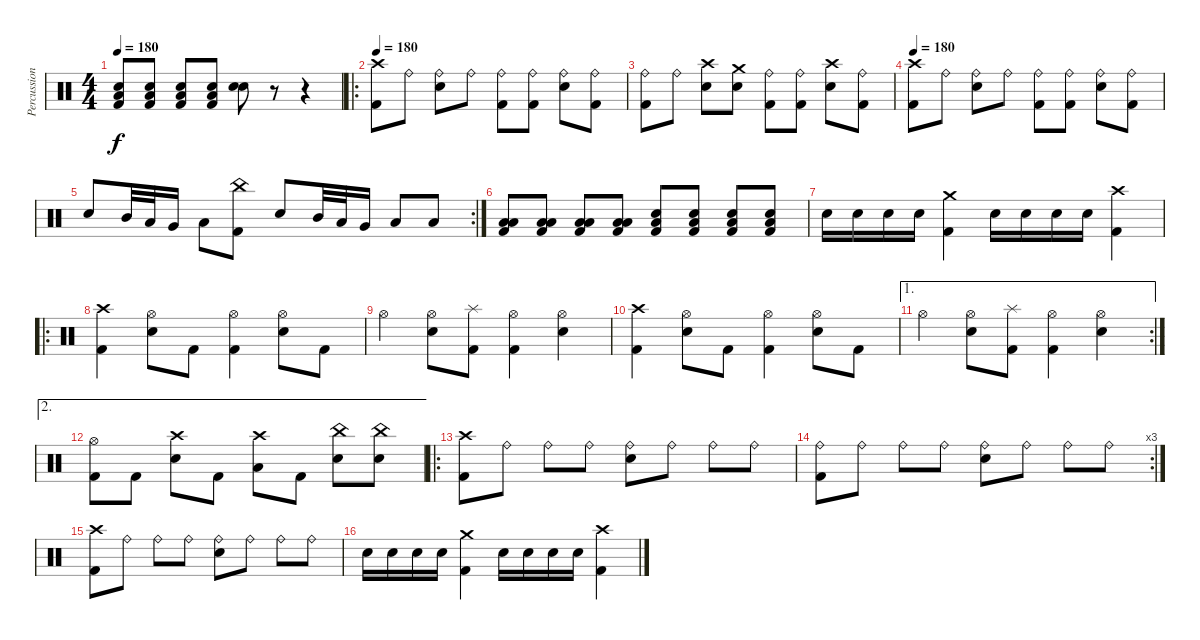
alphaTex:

\track ("Percussions" "Percussion") {instrument percussion}
\staff {score}
\articulation defaults
\ts (4 4)
\tempo 180
\clef neutral
\ks c
("Snare (hit) 2" "Low Floor Tom (hit)" "Kick (hit) 2").8{dy f} ("Snare (hit) 2" "Low Floor Tom (hit)" "Kick (hit) 2").8 ("Snare (hit) 2" "Low Floor Tom (hit)" "Kick (hit) 2").8 ("Snare (hit) 2" "Low Floor Tom (hit)" "Kick (hit) 2").8 ("Snare (hit) 2" "Snare (hit) 2").8{bd 120} r.8 r.4 |
\ro
\tempo 180
("Crash high (hit)" "Kick (hit) 2").8 "Ride (bell)".8 ("Ride (bell)" "Snare (hit) 2").8 "Ride (bell)".8 ("Ride (bell)" "Kick (hit) 2").8 ("Ride (bell)" "Kick (hit) 2").8 ("Ride (bell)" "Snare (hit) 2").8 ("Ride (bell)" "Kick (hit) 2").8 |
("Ride (bell)" "Kick (hit) 2").8 "Ride (bell)".8 ("Crash high (hit)" "Snare (hit) 2").8 ("Crash medium (hit)" "Snare (hit) 2").8 ("Ride (bell)" "Kick (hit) 2").8 ("Ride (bell)" "Kick (hit) 2").8 ("Crash high (hit)" "Snare (hit) 2").8 ("Ride (bell)" "Kick (hit) 2").8 |
\tempo 180
("Crash high (hit)" "Kick (hit) 2").8 "Ride (bell)".8 ("Ride (bell)" "Snare (hit) 2").8 "Ride (bell)".8 ("Ride (bell)" "Kick (hit) 2").8 ("Ride (bell)" "Kick (hit) 2").8 ("Ride (bell)" "Snare (hit) 2").8 ("Ride (bell)" "Kick (hit) 2").8 |
\rc 2 "Snare (hit) 2".8 "Mid Tom (hit)".32 "Low Tom (hit)".32 "Very Low Tom (hit)".16 "Low Floor Tom (hit)".8
("China (hit)" "Kick (hit) 2").8 "Snare (hit) 2".8 "Mid Tom (hit)".32 "Low Tom (hit)".32 "Very Low Tom (hit)".16 "Low Floor Tom (hit)".8 "Low Floor Tom (hit)".8 |
("Low Floor Tom (hit)" "Low Floor Tom (hit)" "Kick (hit) 2").8 ("Low Floor Tom (hit)" "Low Floor Tom (hit)" "Kick (hit) 2").8 ("Low Floor Tom (hit)" "Low Floor Tom (hit)" "Kick (hit) 2").8 ("Low Floor Tom (hit)" "Low Floor Tom (hit)" "Kick (hit) 2").8 ("Snare (hit) 2" "Low Floor Tom (hit)" "Kick (hit) 2").8 ("Snare (hit) 2" "Low Floor Tom (hit)" "Kick (hit) 2").8 ("Snare (hit) 2" "Low Floor Tom (hit)" "Kick (hit) 2").8 ("Snare (hit) 2" "Low Floor Tom (hit)" "Kick (hit) 2").8 |
"Snare (hit) 2".16 "Snare (hit) 2".16 "Snare (hit) 2".16 "Snare (hit) 2".16 ("Crash medium (hit)" "Kick (hit) 2").4 "Snare (hit) 2".16 "Snare (hit) 2".16 "Snare (hit) 2".16 "Snare (hit) 2".16 ("Crash high (hit)" "Kick (hit) 2").4 |
\ro
("Crash high (hit)" "Kick (hit) 2").4 ("Hi-Hat (open)" "Snare (hit) 2").8 "Kick (hit) 2".8 ("Hi-Hat (open)" "Kick (hit) 2").4 ("Hi-Hat (open)" "Snare (hit) 2").8 "Kick (hit) 2".8 |
"Hi-Hat (open)".4 ("Hi-Hat (open)" "Snare (hit) 2").8 ("Splash (hit)" "Kick (hit) 2").8 ("Hi-Hat (open)" "Kick (hit) 2").4 ("Hi-Hat (open)" "Snare (hit) 2").4 |
("Crash high (hit)" "Kick (hit) 2").4 ("Hi-Hat (open)" "Snare (hit) 2").8 "Kick (hit) 2".8 ("Hi-Hat (open)" "Kick (hit) 2").4 ("Hi-Hat (open)" "Snare (hit) 2").8 "Kick (hit) 2".8 |
\ae 1
\rc 2 "Hi-Hat (open)".4
("Hi-Hat (open)" "Snare (hit) 2").8 ("Splash (hit)" "Kick (hit) 2").8 ("Hi-Hat (open)" "Kick (hit) 2").4 ("Hi-Hat (open)" "Snare (hit) 2").4 |
\ae 2
("Hi-Hat (open)" "Kick (hit) 2").8 "Kick (hit) 2".8 ("Crash high (hit)" "Snare (hit) 2").8 "Kick (hit) 2".8 ("Crash high (hit)" "Low Tom (hit)").8 "Kick (hit) 2".8 ("China (hit)" "Snare (hit) 2").8 ("China (hit)" "Snare (hit) 2").8 |
\ro
("Crash high (hit)" "Kick (hit) 2").8 "Ride (bell)".8 "Ride (bell)".8 "Ride (bell)".8 ("Ride (bell)" "Snare (hit) 2").8 "Ride (bell)".8 "Ride (bell)".8 "Ride (bell)".8 |
\rc 3
("Ride (bell)" "Kick (hit) 2").8 "Ride (bell)".8 "Ride (bell)".8 "Ride (bell)".8 ("Ride (bell)" "Snare (hit) 2").8 "Ride (bell)".8 "Ride (bell)".8 "Ride (bell)".8 |
("Crash high (hit)" "Kick (hit) 2").8 "Ride (bell)".8 "Ride (bell)".8 "Ride (bell)".8 ("Ride (bell)" "Snare (hit) 2").8 "Ride (bell)".8 "Ride (bell)".8 "Ride (bell)".8 |
"Snare (hit) 2".16 "Snare (hit) 2".16 "Snare (hit) 2".16 "Snare (hit) 2".16 ("Crash medium (hit)" "Kick (hit) 2").4 "Snare (hit) 2".16 "Snare (hit) 2".16 "Snare (hit) 2".16 "Snare (hit) 2".16 ("Crash high (hit)" "Kick (hit) 2").4
